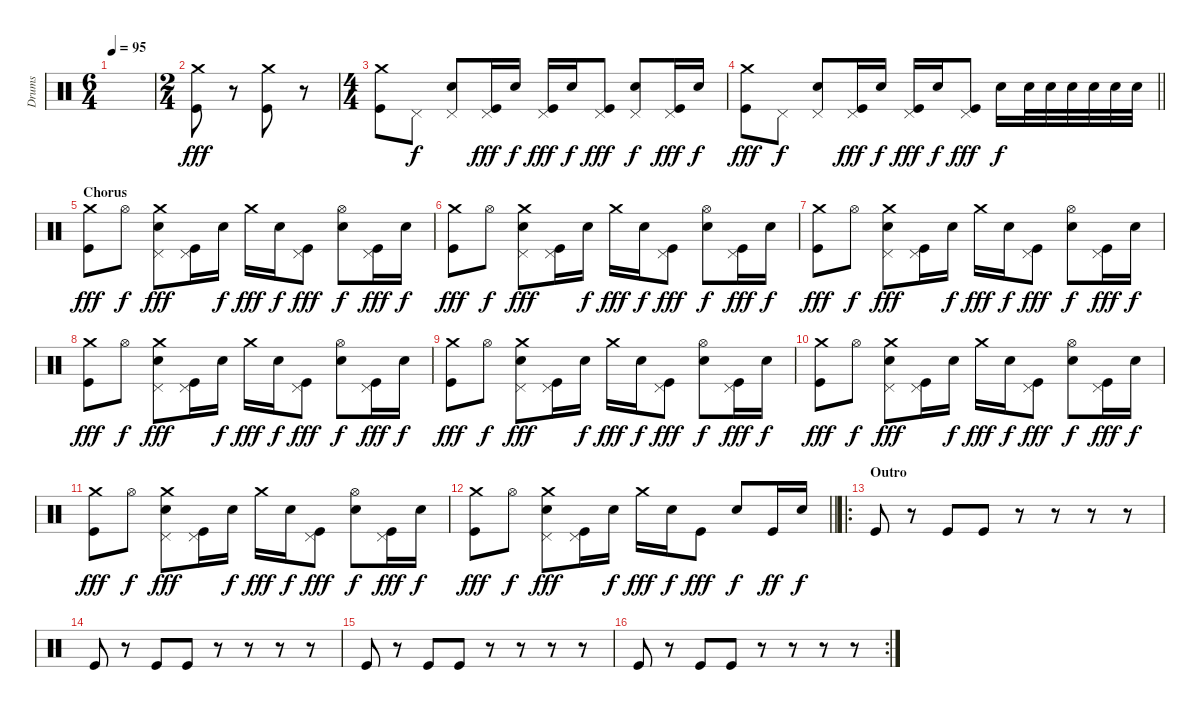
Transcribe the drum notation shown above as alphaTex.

\track ("Drums" "Drums") {instrument percussion}
\staff {score}
\articulation defaults
\ts (6 4)
\tempo 95
\clef neutral
\ks c
|
\ts (2 4)
("Crash medium (hit)" "Kick (hit)").8{dy fff} r.8 ("Crash medium (hit)" "Kick (hit)").8 r.8 |
\ts (4 4)
("Crash medium (hit)" "Kick (hit)").8 "Pedal Hi-Hat (hit)".8{dy f} ("Pedal Hi-Hat (hit)" "Snare (hit) 2").8 ("Pedal Hi-Hat (hit)" "Kick (hit)").16{dy fff} "Snare (hit) 2".16{dy f} ("Pedal Hi-Hat (hit)" "Kick (hit)").16{dy fff} "Snare (hit) 2".16{dy f} ("Pedal Hi-Hat (hit)" "Kick (hit)").8{dy fff} ("Pedal Hi-Hat (hit)" "Snare (hit) 2").8{dy f} ("Pedal Hi-Hat (hit)" "Kick (hit)").16{dy fff} "Snare (hit) 2".16{dy f} |
\barLineRight lightlight
("Crash medium (hit)" "Kick (hit)").8{dy fff} "Pedal Hi-Hat (hit)".8{dy f} ("Pedal Hi-Hat (hit)" "Snare (hit) 2").8 ("Pedal Hi-Hat (hit)" "Kick (hit)").16{dy fff} "Snare (hit) 2".16{dy f} ("Pedal Hi-Hat (hit)" "Kick (hit)").16{dy fff} "Snare (hit) 2".16{dy f} ("Pedal Hi-Hat (hit)" "Kick (hit)").8{dy fff} "Snare (hit) 2".16{dy f} "Snare (hit) 2".32 "Snare (hit) 2".32 "Snare (hit) 2".32 "Snare (hit) 2".32 "Snare (hit) 2".32 "Snare (hit) 2".32 |
\section ("" "Chorus")
("Crash medium (hit)" "Kick (hit)").8{dy fff} "Hi-Hat (open)".8{dy f} ("Crash medium (hit)" "Pedal Hi-Hat (hit)" "Snare (hit) 2").8{dy fff} ("Pedal Hi-Hat (hit)" "Kick (hit)").16 "Snare (hit) 2".16{dy f} "Crash medium (hit)".16{dy fff} "Snare (hit) 2".16{dy f} ("Pedal Hi-Hat (hit)" "Kick (hit)").8{dy fff} ("Hi-Hat (open)" "Snare (hit) 2").8{dy f} ("Pedal Hi-Hat (hit)" "Kick (hit)").16{dy fff} "Snare (hit) 2".16{dy f} |
("Crash medium (hit)" "Kick (hit)").8{dy fff} "Hi-Hat (open)".8{dy f} ("Crash medium (hit)" "Pedal Hi-Hat (hit)" "Snare (hit) 2").8{dy fff} ("Pedal Hi-Hat (hit)" "Kick (hit)").16 "Snare (hit) 2".16{dy f} "Crash medium (hit)".16{dy fff} "Snare (hit) 2".16{dy f} ("Pedal Hi-Hat (hit)" "Kick (hit)").8{dy fff} ("Hi-Hat (open)" "Snare (hit) 2").8{dy f} ("Pedal Hi-Hat (hit)" "Kick (hit)").16{dy fff} "Snare (hit) 2".16{dy f} |
("Crash medium (hit)" "Kick (hit)").8{dy fff} "Hi-Hat (open)".8{dy f} ("Crash medium (hit)" "Pedal Hi-Hat (hit)" "Snare (hit) 2").8{dy fff} ("Pedal Hi-Hat (hit)" "Kick (hit)").16 "Snare (hit) 2".16{dy f} "Crash medium (hit)".16{dy fff} "Snare (hit) 2".16{dy f} ("Pedal Hi-Hat (hit)" "Kick (hit)").8{dy fff} ("Hi-Hat (open)" "Snare (hit) 2").8{dy f} ("Pedal Hi-Hat (hit)" "Kick (hit)").16{dy fff} "Snare (hit) 2".16{dy f} |
("Crash medium (hit)" "Kick (hit)").8{dy fff} "Hi-Hat (open)".8{dy f} ("Crash medium (hit)" "Pedal Hi-Hat (hit)" "Snare (hit) 2").8{dy fff} ("Pedal Hi-Hat (hit)" "Kick (hit)").16 "Snare (hit) 2".16{dy f} "Crash medium (hit)".16{dy fff} "Snare (hit) 2".16{dy f} ("Pedal Hi-Hat (hit)" "Kick (hit)").8{dy fff} ("Hi-Hat (open)" "Snare (hit) 2").8{dy f} ("Pedal Hi-Hat (hit)" "Kick (hit)").16{dy fff} "Snare (hit) 2".16{dy f} |
("Crash medium (hit)" "Kick (hit)").8{dy fff} "Hi-Hat (open)".8{dy f} ("Crash medium (hit)" "Pedal Hi-Hat (hit)" "Snare (hit) 2").8{dy fff} ("Pedal Hi-Hat (hit)" "Kick (hit)").16 "Snare (hit) 2".16{dy f} "Crash medium (hit)".16{dy fff} "Snare (hit) 2".16{dy f} ("Pedal Hi-Hat (hit)" "Kick (hit)").8{dy fff} ("Hi-Hat (open)" "Snare (hit) 2").8{dy f} ("Pedal Hi-Hat (hit)" "Kick (hit)").16{dy fff} "Snare (hit) 2".16{dy f} |
("Crash medium (hit)" "Kick (hit)").8{dy fff} "Hi-Hat (open)".8{dy f} ("Crash medium (hit)" "Pedal Hi-Hat (hit)" "Snare (hit) 2").8{dy fff} ("Pedal Hi-Hat (hit)" "Kick (hit)").16 "Snare (hit) 2".16{dy f} "Crash medium (hit)".16{dy fff} "Snare (hit) 2".16{dy f} ("Pedal Hi-Hat (hit)" "Kick (hit)").8{dy fff} ("Hi-Hat (open)" "Snare (hit) 2").8{dy f} ("Pedal Hi-Hat (hit)" "Kick (hit)").16{dy fff} "Snare (hit) 2".16{dy f} |
("Crash medium (hit)" "Kick (hit)").8{dy fff} "Hi-Hat (open)".8{dy f} ("Crash medium (hit)" "Pedal Hi-Hat (hit)" "Snare (hit) 2").8{dy fff} ("Pedal Hi-Hat (hit)" "Kick (hit)").16 "Snare (hit) 2".16{dy f} "Crash medium (hit)".16{dy fff} "Snare (hit) 2".16{dy f} ("Pedal Hi-Hat (hit)" "Kick (hit)").8{dy fff} ("Hi-Hat (open)" "Snare (hit) 2").8{dy f} ("Pedal Hi-Hat (hit)" "Kick (hit)").16{dy fff} "Snare (hit) 2".16{dy f} |
\barLineRight lightlight
("Crash medium (hit)" "Kick (hit)").8{dy fff} "Hi-Hat (open)".8{dy f} ("Crash medium (hit)" "Pedal Hi-Hat (hit)" "Snare (hit) 2").8{dy fff} ("Pedal Hi-Hat (hit)" "Kick (hit)").16 "Snare (hit) 2".16{dy f} "Crash medium (hit)".16{dy fff} "Snare (hit) 2".16{dy f} "Kick (hit)".8{dy fff} "Snare (hit) 2".8{dy f} "Kick (hit)".16{dy ff} "Snare (hit) 2".16{dy f} |
\ro
\section ("" "Outro")
"Kick (hit)".8 r.8 "Kick (hit)".8 "Kick (hit)".8 r.8 r.8 r.8 r.8 |
"Kick (hit)".8 r.8 "Kick (hit)".8 "Kick (hit)".8 r.8 r.8 r.8 r.8 |
"Kick (hit)".8 r.8 "Kick (hit)".8 "Kick (hit)".8 r.8 r.8 r.8 r.8 |
\rc 2 "Kick (hit)".8
r.8 "Kick (hit)".8 "Kick (hit)".8 r.8 r.8 r.8 r.8
